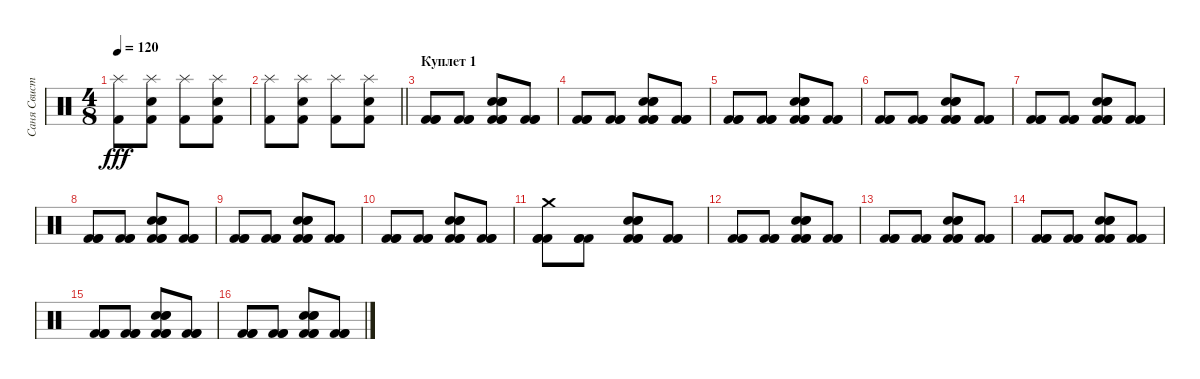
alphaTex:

\track ("Саня Свистун - Drums" "Саня Свист") {instrument percussion}
\staff {score}
\articulation defaults
\ts (4 8)
\tempo 120
\clef neutral
\ks c
("Kick (hit) 2" "Splash (hit)").8{dy fff} ("Electric Snare (hit)" "Splash (hit)" "Kick (hit) 2").8 ("Kick (hit) 2" "Splash (hit)").8 ("Electric Snare (hit)" "Splash (hit)" "Kick (hit) 2").8 |
\barLineRight lightlight
("Kick (hit) 2" "Splash (hit)").8 ("Electric Snare (hit)" "Splash (hit)" "Kick (hit) 2").8 ("Kick (hit) 2" "Splash (hit)").8 ("Electric Snare (hit)" "Splash (hit)" "Kick (hit) 2").8 |
\section ("" "Куплет 1")
("Kick (hit) 2" "Kick (hit) 2" "Kick (hit) 2").8 ("Kick (hit) 2" "Kick (hit) 2" "Kick (hit) 2").8 ("Kick (hit) 2" "Kick (hit) 2" "Kick (hit) 2" "Electric Snare (hit)" "Electric Snare (hit)" "Electric Snare (hit)").8 ("Kick (hit) 2" "Kick (hit) 2" "Kick (hit) 2").8 |
("Kick (hit) 2" "Kick (hit) 2" "Kick (hit) 2").8 ("Kick (hit) 2" "Kick (hit) 2" "Kick (hit) 2").8 ("Kick (hit) 2" "Kick (hit) 2" "Kick (hit) 2" "Electric Snare (hit)" "Electric Snare (hit)" "Electric Snare (hit)").8 ("Kick (hit) 2" "Kick (hit) 2" "Kick (hit) 2").8 |
("Kick (hit) 2" "Kick (hit) 2" "Kick (hit) 2").8 ("Kick (hit) 2" "Kick (hit) 2" "Kick (hit) 2").8 ("Kick (hit) 2" "Kick (hit) 2" "Kick (hit) 2" "Electric Snare (hit)" "Electric Snare (hit)" "Electric Snare (hit)").8 ("Kick (hit) 2" "Kick (hit) 2" "Kick (hit) 2").8 |
("Kick (hit) 2" "Kick (hit) 2" "Kick (hit) 2").8 ("Kick (hit) 2" "Kick (hit) 2" "Kick (hit) 2").8 ("Kick (hit) 2" "Kick (hit) 2" "Kick (hit) 2" "Electric Snare (hit)" "Electric Snare (hit)" "Electric Snare (hit)").8 ("Kick (hit) 2" "Kick (hit) 2" "Kick (hit) 2").8 |
("Kick (hit) 2" "Kick (hit) 2" "Kick (hit) 2").8 ("Kick (hit) 2" "Kick (hit) 2" "Kick (hit) 2").8 ("Kick (hit) 2" "Kick (hit) 2" "Kick (hit) 2" "Electric Snare (hit)" "Electric Snare (hit)" "Electric Snare (hit)").8 ("Kick (hit) 2" "Kick (hit) 2" "Kick (hit) 2").8 |
("Kick (hit) 2" "Kick (hit) 2" "Kick (hit) 2").8 ("Kick (hit) 2" "Kick (hit) 2" "Kick (hit) 2").8 ("Kick (hit) 2" "Kick (hit) 2" "Kick (hit) 2" "Electric Snare (hit)" "Electric Snare (hit)" "Electric Snare (hit)").8 ("Kick (hit) 2" "Kick (hit) 2" "Kick (hit) 2").8 |
("Kick (hit) 2" "Kick (hit) 2" "Kick (hit) 2").8 ("Kick (hit) 2" "Kick (hit) 2" "Kick (hit) 2").8 ("Kick (hit) 2" "Kick (hit) 2" "Kick (hit) 2" "Electric Snare (hit)" "Electric Snare (hit)" "Electric Snare (hit)").8 ("Kick (hit) 2" "Kick (hit) 2" "Kick (hit) 2").8 |
("Kick (hit) 2" "Kick (hit) 2" "Kick (hit) 2").8 ("Kick (hit) 2" "Kick (hit) 2" "Kick (hit) 2").8 ("Kick (hit) 2" "Kick (hit) 2" "Kick (hit) 2" "Electric Snare (hit)" "Electric Snare (hit)" "Electric Snare (hit)").8 ("Kick (hit) 2" "Kick (hit) 2" "Kick (hit) 2").8 |
("Kick (hit) 2" "Kick (hit) 2" "Kick (hit) 2" "Crash medium (hit)").8 ("Kick (hit) 2" "Kick (hit) 2" "Kick (hit) 2").8 ("Kick (hit) 2" "Kick (hit) 2" "Kick (hit) 2" "Electric Snare (hit)" "Electric Snare (hit)" "Electric Snare (hit)").8 ("Kick (hit) 2" "Kick (hit) 2" "Kick (hit) 2").8 |
("Kick (hit) 2" "Kick (hit) 2" "Kick (hit) 2").8 ("Kick (hit) 2" "Kick (hit) 2" "Kick (hit) 2").8 ("Kick (hit) 2" "Kick (hit) 2" "Kick (hit) 2" "Electric Snare (hit)" "Electric Snare (hit)" "Electric Snare (hit)").8 ("Kick (hit) 2" "Kick (hit) 2" "Kick (hit) 2").8 |
("Kick (hit) 2" "Kick (hit) 2" "Kick (hit) 2").8 ("Kick (hit) 2" "Kick (hit) 2" "Kick (hit) 2").8 ("Kick (hit) 2" "Kick (hit) 2" "Kick (hit) 2" "Electric Snare (hit)" "Electric Snare (hit)" "Electric Snare (hit)").8 ("Kick (hit) 2" "Kick (hit) 2" "Kick (hit) 2").8 |
("Kick (hit) 2" "Kick (hit) 2" "Kick (hit) 2").8 ("Kick (hit) 2" "Kick (hit) 2" "Kick (hit) 2").8 ("Kick (hit) 2" "Kick (hit) 2" "Kick (hit) 2" "Electric Snare (hit)" "Electric Snare (hit)" "Electric Snare (hit)").8 ("Kick (hit) 2" "Kick (hit) 2" "Kick (hit) 2").8 |
("Kick (hit) 2" "Kick (hit) 2" "Kick (hit) 2").8 ("Kick (hit) 2" "Kick (hit) 2" "Kick (hit) 2").8 ("Kick (hit) 2" "Kick (hit) 2" "Kick (hit) 2" "Electric Snare (hit)" "Electric Snare (hit)" "Electric Snare (hit)").8 ("Kick (hit) 2" "Kick (hit) 2" "Kick (hit) 2").8 |
("Kick (hit) 2" "Kick (hit) 2" "Kick (hit) 2").8 ("Kick (hit) 2" "Kick (hit) 2" "Kick (hit) 2").8 ("Kick (hit) 2" "Kick (hit) 2" "Kick (hit) 2" "Electric Snare (hit)" "Electric Snare (hit)" "Electric Snare (hit)").8 ("Kick (hit) 2" "Kick (hit) 2" "Kick (hit) 2").8
